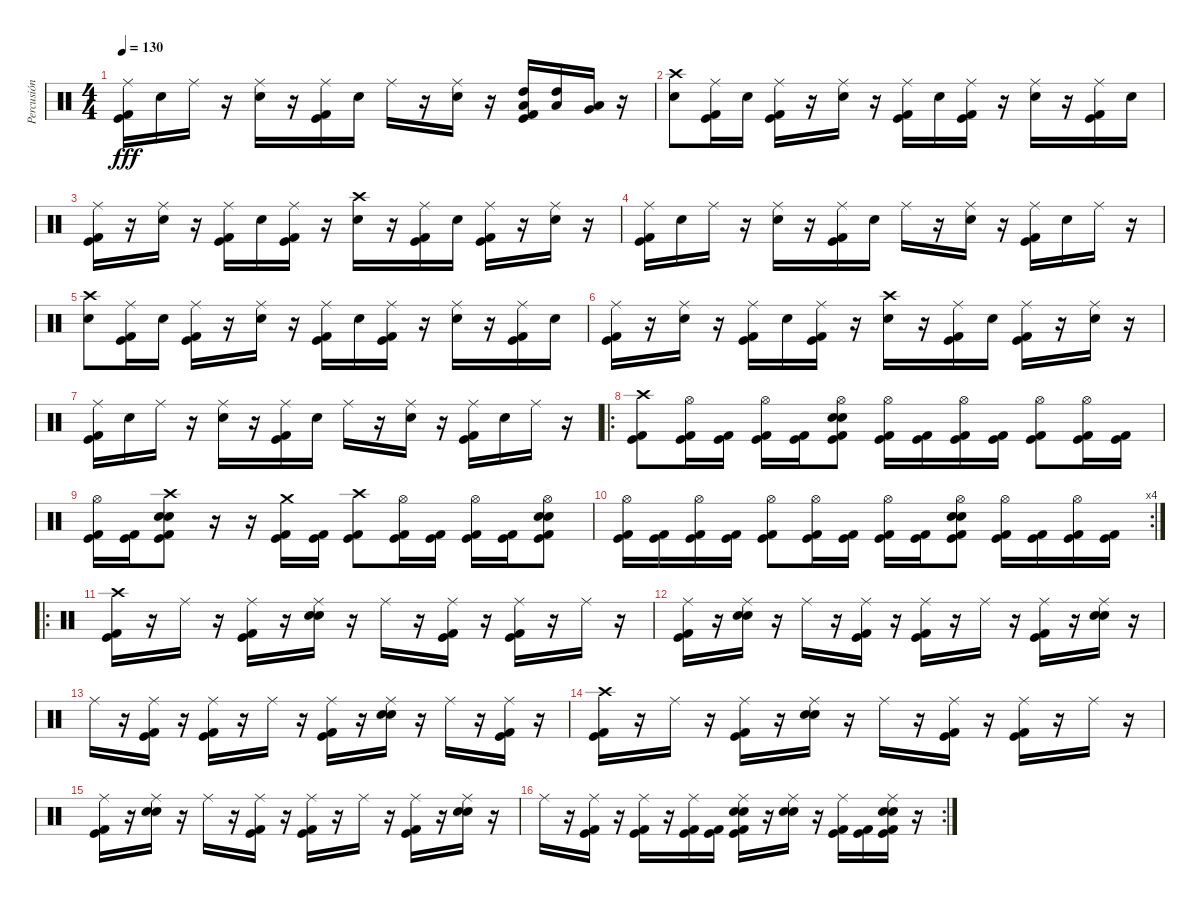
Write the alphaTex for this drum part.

\track ("Percusión" "Percusión") {instrument percussion}
\staff {score}
\articulation defaults
\ts (4 4)
\tempo 130
\clef neutral
\ks c
("Ride (middle)" "Kick (hit) 2" "Kick (hit)").16{dy fff} "Snare (hit) 2".16 "Ride (middle)".16 r.16 ("Ride (middle)" "Snare (hit) 2").16 r.16 ("Ride (middle)" "Kick (hit)" "Kick (hit) 2").16 "Snare (hit) 2".16 "Ride (middle)".16 r.16 ("Ride (middle)" "Snare (hit) 2").16 r.16 ("High Tom (hit)" "Low Tom (hit)" "Kick (hit)" "Kick (hit) 2").16 ("High Tom (hit)" "Low Tom (hit)").16 ("Low Tom (hit)" "Very Low Tom (hit)").16 r.16 |
("Crash high (hit)" "Snare (hit) 2").8 ("Ride (middle)" "Kick (hit)" "Kick (hit) 2").16 "Snare (hit) 2".16 ("Ride (middle)" "Kick (hit)" "Kick (hit) 2").16 r.16 ("Ride (middle)" "Snare (hit) 2").16 r.16 ("Ride (middle)" "Kick (hit)" "Kick (hit) 2").16 "Snare (hit) 2".16 ("Ride (middle)" "Kick (hit) 2" "Kick (hit)").16 r.16 ("Ride (middle)" "Snare (hit) 2").16 r.16 ("Ride (middle)" "Kick (hit)" "Kick (hit) 2").16 "Snare (hit) 2".16 |
("Ride (middle)" "Kick (hit) 2" "Kick (hit)").16 r.16 ("Ride (middle)" "Snare (hit) 2").16 r.16 ("Ride (middle)" "Kick (hit) 2" "Kick (hit)").16 "Snare (hit) 2".16 ("Ride (middle)" "Kick (hit)" "Kick (hit) 2").16 r.16 ("Crash high (hit)" "Snare (hit) 2").16 r.16 ("Ride (middle)" "Kick (hit)" "Kick (hit) 2").16 "Snare (hit) 2".16 ("Ride (middle)" "Kick (hit) 2" "Kick (hit)").16 r.16 ("Ride (middle)" "Snare (hit) 2").16 r.16 |
("Ride (middle)" "Kick (hit) 2" "Kick (hit)").16 "Snare (hit) 2".16 "Ride (middle)".16 r.16 ("Ride (middle)" "Snare (hit) 2").16 r.16 ("Ride (middle)" "Kick (hit)" "Kick (hit) 2").16 "Snare (hit) 2".16 "Ride (middle)".16 r.16 ("Ride (middle)" "Snare (hit) 2").16 r.16 ("Ride (middle)" "Kick (hit)" "Kick (hit) 2").16 "Snare (hit) 2".16 "Ride (middle)".16 r.16 |
("Crash high (hit)" "Snare (hit) 2").8 ("Ride (middle)" "Kick (hit)" "Kick (hit) 2").16 "Snare (hit) 2".16 ("Ride (middle)" "Kick (hit)" "Kick (hit) 2").16 r.16 ("Ride (middle)" "Snare (hit) 2").16 r.16 ("Ride (middle)" "Kick (hit)" "Kick (hit) 2").16 "Snare (hit) 2".16 ("Ride (middle)" "Kick (hit) 2" "Kick (hit)").16 r.16 ("Ride (middle)" "Snare (hit) 2").16 r.16 ("Ride (middle)" "Kick (hit)" "Kick (hit) 2").16 "Snare (hit) 2".16 |
("Ride (middle)" "Kick (hit) 2" "Kick (hit)").16 r.16 ("Ride (middle)" "Snare (hit) 2").16 r.16 ("Ride (middle)" "Kick (hit) 2" "Kick (hit)").16 "Snare (hit) 2".16 ("Ride (middle)" "Kick (hit)" "Kick (hit) 2").16 r.16 ("Crash high (hit)" "Snare (hit) 2").16 r.16 ("Ride (middle)" "Kick (hit)" "Kick (hit) 2").16 "Snare (hit) 2".16 ("Ride (middle)" "Kick (hit) 2" "Kick (hit)").16 r.16 ("Ride (middle)" "Snare (hit) 2").16 r.16 |
("Ride (middle)" "Kick (hit) 2" "Kick (hit)").16 "Snare (hit) 2".16 "Ride (middle)".16 r.16 ("Ride (middle)" "Snare (hit) 2").16 r.16 ("Ride (middle)" "Kick (hit)" "Kick (hit) 2").16 "Snare (hit) 2".16 "Ride (middle)".16 r.16 ("Ride (middle)" "Snare (hit) 2").16 r.16 ("Ride (middle)" "Kick (hit)" "Kick (hit) 2").16 "Snare (hit) 2".16 "Ride (middle)".16 r.16 |
\ro
("Crash high (hit)" "Kick (hit) 2" "Kick (hit)").8 ("Hi-Hat (open)" "Kick (hit) 2" "Kick (hit)").16 ("Kick (hit) 2" "Kick (hit)").16 ("Hi-Hat (open)" "Kick (hit) 2" "Kick (hit)").16 ("Kick (hit) 2" "Kick (hit)").16 ("Hi-Hat (open)" "Snare (hit) 2" "Electric Snare (hit)" "Kick (hit) 2" "Kick (hit)").8 ("Hi-Hat (open)" "Kick (hit) 2" "Kick (hit)").16 ("Kick (hit) 2" "Kick (hit)").16 ("Hi-Hat (open)" "Kick (hit) 2" "Kick (hit)").16 ("Kick (hit) 2" "Kick (hit)").16 ("Hi-Hat (open)" "Kick (hit) 2" "Kick (hit)").8 ("Hi-Hat (open)" "Kick (hit) 2" "Kick (hit)").16 ("Kick (hit) 2" "Kick (hit)").16 |
("Hi-Hat (open)" "Kick (hit) 2" "Kick (hit)").16 ("Kick (hit) 2" "Kick (hit)").16 ("Crash high (hit)" "Snare (hit) 2" "Electric Snare (hit)" "Kick (hit) 2" "Kick (hit)").8 r.16 r.16 ("Crash medium (hit)" "Kick (hit) 2" "Kick (hit)").16 ("Kick (hit) 2" "Kick (hit)").16 ("Crash high (hit)" "Kick (hit) 2" "Kick (hit)").8 ("Hi-Hat (open)" "Kick (hit) 2" "Kick (hit)").16 ("Kick (hit) 2" "Kick (hit)").16 ("Hi-Hat (open)" "Kick (hit) 2" "Kick (hit)").16 ("Kick (hit) 2" "Kick (hit)").16 ("Hi-Hat (open)" "Snare (hit) 2" "Electric Snare (hit)" "Kick (hit) 2" "Kick (hit)").8 |
\rc 4
("Hi-Hat (open)" "Kick (hit) 2" "Kick (hit)").16 ("Kick (hit) 2" "Kick (hit)").16 ("Hi-Hat (open)" "Kick (hit) 2" "Kick (hit)").16 ("Kick (hit) 2" "Kick (hit)").16 ("Hi-Hat (open)" "Kick (hit) 2" "Kick (hit)").8 ("Hi-Hat (open)" "Kick (hit) 2" "Kick (hit)").16 ("Kick (hit) 2" "Kick (hit)").16 ("Hi-Hat (open)" "Kick (hit) 2" "Kick (hit)").16 ("Kick (hit) 2" "Kick (hit)").16 ("Hi-Hat (open)" "Electric Snare (hit)" "Snare (hit) 2" "Kick (hit) 2" "Kick (hit)").8 ("Hi-Hat (open)" "Kick (hit) 2" "Kick (hit)").16 ("Kick (hit) 2" "Kick (hit)").16 ("Hi-Hat (open)" "Kick (hit) 2" "Kick (hit)").16 ("Kick (hit) 2" "Kick (hit)").16 |
\ro
("Crash high (hit)" "Kick (hit) 2" "Kick (hit)").16 r.16 "Ride (middle)".16 r.16 ("Ride (middle)" "Kick (hit)" "Kick (hit) 2").16 r.16 ("Ride (middle)" "Snare (hit) 2" "Electric Snare (hit)").16 r.16 "Ride (middle)".16 r.16 ("Ride (middle)" "Kick (hit) 2" "Kick (hit)").16 r.16 ("Ride (middle)" "Kick (hit) 2" "Kick (hit)").16 r.16 "Ride (middle)".16 r.16 |
("Ride (middle)" "Kick (hit) 2" "Kick (hit)").16 r.16 ("Ride (middle)" "Snare (hit) 2" "Electric Snare (hit)").16 r.16 "Ride (middle)".16 r.16 ("Ride (middle)" "Kick (hit) 2" "Kick (hit)").16 r.16 ("Ride (middle)" "Kick (hit) 2" "Kick (hit)").16 r.16 "Ride (middle)".16 r.16 ("Ride (middle)" "Kick (hit)" "Kick (hit) 2").16 r.16 ("Ride (middle)" "Snare (hit) 2" "Electric Snare (hit)").16 r.16 |
"Ride (middle)".16 r.16 ("Ride (middle)" "Kick (hit)" "Kick (hit) 2").16 r.16 ("Ride (middle)" "Kick (hit) 2" "Kick (hit)").16 r.16 "Ride (middle)".16 r.16 ("Ride (middle)" "Kick (hit) 2" "Kick (hit)").16 r.16 ("Ride (middle)" "Snare (hit) 2" "Electric Snare (hit)").16 r.16 "Ride (middle)".16 r.16 ("Ride (middle)" "Kick (hit) 2" "Kick (hit)").16 r.16 |
("Crash high (hit)" "Kick (hit) 2" "Kick (hit)").16 r.16 "Ride (middle)".16 r.16 ("Ride (middle)" "Kick (hit)" "Kick (hit) 2").16 r.16 ("Ride (middle)" "Snare (hit) 2" "Electric Snare (hit)").16 r.16 "Ride (middle)".16 r.16 ("Ride (middle)" "Kick (hit) 2" "Kick (hit)").16 r.16 ("Ride (middle)" "Kick (hit) 2" "Kick (hit)").16 r.16 "Ride (middle)".16 r.16 |
("Ride (middle)" "Kick (hit) 2" "Kick (hit)").16 r.16 ("Ride (middle)" "Snare (hit) 2" "Electric Snare (hit)").16 r.16 "Ride (middle)".16 r.16 ("Ride (middle)" "Kick (hit) 2" "Kick (hit)").16 r.16 ("Ride (middle)" "Kick (hit) 2" "Kick (hit)").16 r.16 "Ride (middle)".16 r.16 ("Ride (middle)" "Kick (hit)" "Kick (hit) 2").16 r.16 ("Ride (middle)" "Snare (hit) 2" "Electric Snare (hit)").16 r.16 |
\rc 2 "Ride (middle)".16
r.16 ("Ride (middle)" "Kick (hit)" "Kick (hit) 2").16 r.16 ("Ride (middle)" "Kick (hit) 2" "Kick (hit)").16 r.16 ("Ride (middle)" "Kick (hit) 2" "Kick (hit)").16 ("Kick (hit) 2" "Kick (hit)").16 ("Ride (middle)" "Electric Snare (hit)" "Snare (hit) 2" "Kick (hit) 2" "Kick (hit)").16 r.16 ("Ride (middle)" "Snare (hit) 2" "Electric Snare (hit)").16 r.16 ("Ride (middle)" "Kick (hit) 2" "Kick (hit)").16 ("Kick (hit) 2" "Kick (hit)").16 ("Ride (middle)" "Snare (hit) 2" "Electric Snare (hit)" "Kick (hit) 2" "Kick (hit)").16 r.16
